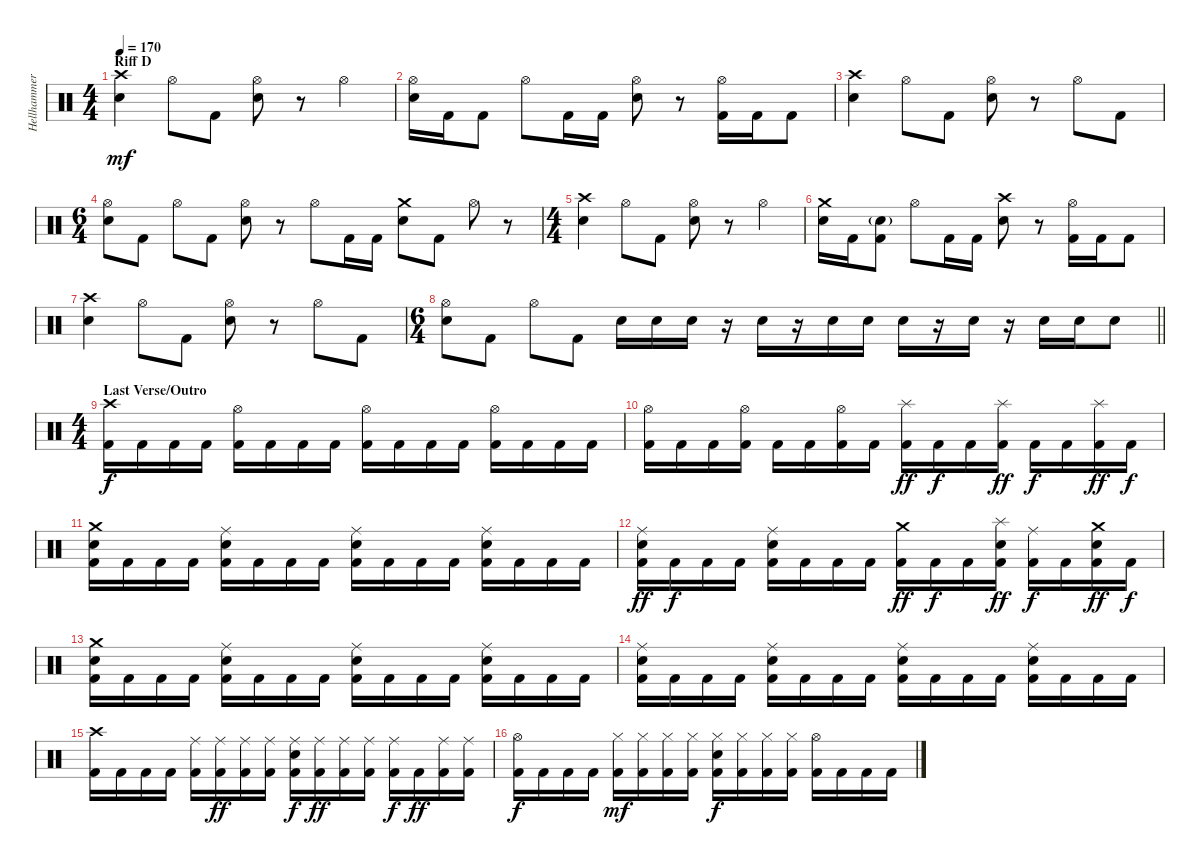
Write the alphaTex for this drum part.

\track ("Hellhammer" "Hellhammer") {instrument percussion}
\staff {score}
\articulation defaults
\ts (4 4)
\section ("" "Riff D")
\tempo 170
\clef neutral
\ks c
("Crash high (hit)" "Snare (hit) 2").4{dy mf} "Hi-Hat (open)".8 "Kick (hit) 2".8 ("Hi-Hat (open)" "Snare (hit) 2").8 r.8 "Hi-Hat (open)".4 |
("Hi-Hat (open)" "Snare (hit) 2").16 "Kick (hit) 2".16 "Kick (hit) 2".8 "Hi-Hat (open)".8 "Kick (hit) 2".16 "Kick (hit) 2".16 ("Hi-Hat (open)" "Snare (hit) 2").8 r.8 ("Hi-Hat (open)" "Kick (hit) 2").16 "Kick (hit) 2".16 "Kick (hit) 2".8 |
("Crash high (hit)" "Snare (hit) 2").4 "Hi-Hat (open)".8 "Kick (hit) 2".8 ("Hi-Hat (open)" "Snare (hit) 2").8 r.8 "Hi-Hat (open)".8 "Kick (hit) 2".8 |
\ts (6 4)
("Hi-Hat (open)" "Snare (hit) 2").8 "Kick (hit) 2".8 "Hi-Hat (open)".8 "Kick (hit) 2".8 ("Hi-Hat (open)" "Snare (hit) 2").8 r.8 "Hi-Hat (open)".8 "Kick (hit) 2".16 "Kick (hit) 2".16 ("Crash medium (hit)" "Snare (hit) 2").8 "Kick (hit) 2".8 "Hi-Hat (open)".8 r.8 |
\ts (4 4)
("Crash high (hit)" "Snare (hit) 2").4 "Hi-Hat (open)".8 "Kick (hit) 2".8 ("Hi-Hat (open)" "Snare (hit) 2").8 r.8 "Hi-Hat (open)".4 |
("Crash medium (hit)" "Snare (hit) 2").16 "Kick (hit) 2".16 ("Snare (hit) 2"{g} "Kick (hit) 2").8 "Hi-Hat (open)".8 "Kick (hit) 2".16 "Kick (hit) 2".16 ("Crash high (hit)" "Snare (hit) 2").8 r.8 ("Hi-Hat (open)" "Kick (hit) 2").16 "Kick (hit) 2".16 "Kick (hit) 2".8 |
("Crash high (hit)" "Snare (hit) 2").4 "Hi-Hat (open)".8 "Kick (hit) 2".8 ("Hi-Hat (open)" "Snare (hit) 2").8 r.8 "Hi-Hat (open)".8 "Kick (hit) 2".8 |
\ts (6 4)
\barLineRight lightlight
("Hi-Hat (open)" "Snare (hit) 2").8 "Kick (hit) 2".8 "Hi-Hat (open)".8 "Kick (hit) 2".8 "Snare (hit) 2".16 "Snare (hit) 2".16 "Snare (hit) 2".16 r.16 "Snare (hit) 2".16 r.16 "Snare (hit) 2".16 "Snare (hit) 2".16 "Snare (hit) 2".16 r.16 "Snare (hit) 2".16 r.16 "Snare (hit) 2".16 "Snare (hit) 2".16 "Snare (hit) 2".8 |
\ts (4 4)
\section ("" "Last Verse/Outro")
("Crash high (hit)" "Kick (hit) 2").16{dy f} "Kick (hit) 2".16 "Kick (hit) 2".16 "Kick (hit) 2".16 ("Hi-Hat (open)" "Kick (hit) 2").16 "Kick (hit) 2".16 "Kick (hit) 2".16 "Kick (hit) 2".16 ("Hi-Hat (open)" "Kick (hit) 2").16 "Kick (hit) 2".16 "Kick (hit) 2".16 "Kick (hit) 2".16 ("Hi-Hat (open)" "Kick (hit) 2").16 "Kick (hit) 2".16 "Kick (hit) 2".16 "Kick (hit) 2".16 |
("Hi-Hat (open)" "Kick (hit) 2").16 "Kick (hit) 2".16 "Kick (hit) 2".16 ("Hi-Hat (open)" "Kick (hit) 2").16 "Kick (hit) 2".16 "Kick (hit) 2".16 ("Hi-Hat (open)" "Kick (hit) 2").16 "Kick (hit) 2".16 ("Splash (hit)" "Kick (hit) 2").16{dy ff} "Kick (hit) 2".16{dy f} "Kick (hit) 2".16 ("Splash (hit)" "Kick (hit) 2").16{dy ff} "Kick (hit) 2".16{dy f} "Kick (hit) 2".16 ("Splash (hit)" "Kick (hit) 2").16{dy ff} "Kick (hit) 2".16{dy f} |
("Crash medium (hit)" "Snare (hit) 2" "Kick (hit) 2").16 "Kick (hit) 2".16 "Kick (hit) 2".16 "Kick (hit) 2".16 ("Ride (middle)" "Snare (hit) 2" "Kick (hit) 2").16 "Kick (hit) 2".16 "Kick (hit) 2".16 "Kick (hit) 2".16 ("Ride (middle)" "Snare (hit) 2" "Kick (hit) 2").16 "Kick (hit) 2".16 "Kick (hit) 2".16 "Kick (hit) 2".16 ("Ride (middle)" "Snare (hit) 2" "Kick (hit) 2").16 "Kick (hit) 2".16 "Kick (hit) 2".16 "Kick (hit) 2".16 |
("Ride (middle)" "Snare (hit) 2" "Kick (hit) 2").16{dy ff} "Kick (hit) 2".16{dy f} "Kick (hit) 2".16 "Kick (hit) 2".16 ("Ride (middle)" "Snare (hit) 2" "Kick (hit) 2").16 "Kick (hit) 2".16 "Kick (hit) 2".16 "Kick (hit) 2".16 ("Crash medium (hit)" "Kick (hit) 2").16{dy ff} "Kick (hit) 2".16{dy f} "Kick (hit) 2".16 ("Splash (hit)" "Snare (hit) 2" "Kick (hit) 2").16{dy ff} ("Ride (middle)" "Kick (hit) 2").16{dy f} "Kick (hit) 2".16 ("Crash medium (hit)" "Snare (hit) 2" "Kick (hit) 2").16{dy ff} "Kick (hit) 2".16{dy f} |
("Crash medium (hit)" "Snare (hit) 2" "Kick (hit) 2").16 "Kick (hit) 2".16 "Kick (hit) 2".16 "Kick (hit) 2".16 ("Ride (middle)" "Snare (hit) 2" "Kick (hit) 2").16 "Kick (hit) 2".16 "Kick (hit) 2".16 "Kick (hit) 2".16 ("Ride (middle)" "Snare (hit) 2" "Kick (hit) 2").16 "Kick (hit) 2".16 "Kick (hit) 2".16 "Kick (hit) 2".16 ("Ride (middle)" "Snare (hit) 2" "Kick (hit) 2").16 "Kick (hit) 2".16 "Kick (hit) 2".16 "Kick (hit) 2".16 |
("Ride (middle)" "Snare (hit) 2" "Kick (hit) 2").16 "Kick (hit) 2".16 "Kick (hit) 2".16 "Kick (hit) 2".16 ("Ride (middle)" "Snare (hit) 2" "Kick (hit) 2").16 "Kick (hit) 2".16 "Kick (hit) 2".16 "Kick (hit) 2".16 ("Ride (middle)" "Snare (hit) 2" "Kick (hit) 2").16 "Kick (hit) 2".16 "Kick (hit) 2".16 "Kick (hit) 2".16 ("Ride (middle)" "Snare (hit) 2" "Kick (hit) 2").16 "Kick (hit) 2".16 "Kick (hit) 2".16 "Kick (hit) 2".16 |
("Crash high (hit)" "Kick (hit) 2").16 "Kick (hit) 2".16 "Kick (hit) 2".16 "Kick (hit) 2".16 ("Ride (middle)" "Kick (hit) 2").16 ("Ride (middle)" "Kick (hit) 2").16{dy ff} ("Ride (middle)" "Kick (hit) 2").16 ("Ride (middle)" "Kick (hit) 2").16 ("Ride (middle)" "Snare (hit) 2" "Kick (hit) 2").16{dy f} ("Ride (middle)" "Kick (hit) 2").16{dy ff} ("Ride (middle)" "Kick (hit) 2").16 ("Ride (middle)" "Kick (hit) 2").16 ("Ride (middle)" "Kick (hit) 2").16{dy f} "Kick (hit) 2".16{dy ff} ("Ride (middle)" "Kick (hit) 2").16 ("Ride (middle)" "Kick (hit) 2").16 |
("Hi-Hat (open)" "Kick (hit) 2").16{dy f} "Kick (hit) 2".16 "Kick (hit) 2".16 "Kick (hit) 2".16 ("Hi-Hat (closed)" "Kick (hit) 2").16{dy mf} ("Hi-Hat (closed)" "Kick (hit) 2").16 ("Hi-Hat (closed)" "Kick (hit) 2").16 ("Hi-Hat (closed)" "Kick (hit) 2").16 ("Hi-Hat (closed)" "Snare (hit) 2" "Kick (hit) 2").16{dy f} ("Hi-Hat (closed)" "Kick (hit) 2").16 ("Hi-Hat (closed)" "Kick (hit) 2").16 ("Hi-Hat (closed)" "Kick (hit) 2").16 ("Hi-Hat (open)" "Kick (hit) 2").16 "Kick (hit) 2".16 "Kick (hit) 2".16 "Kick (hit) 2".16
